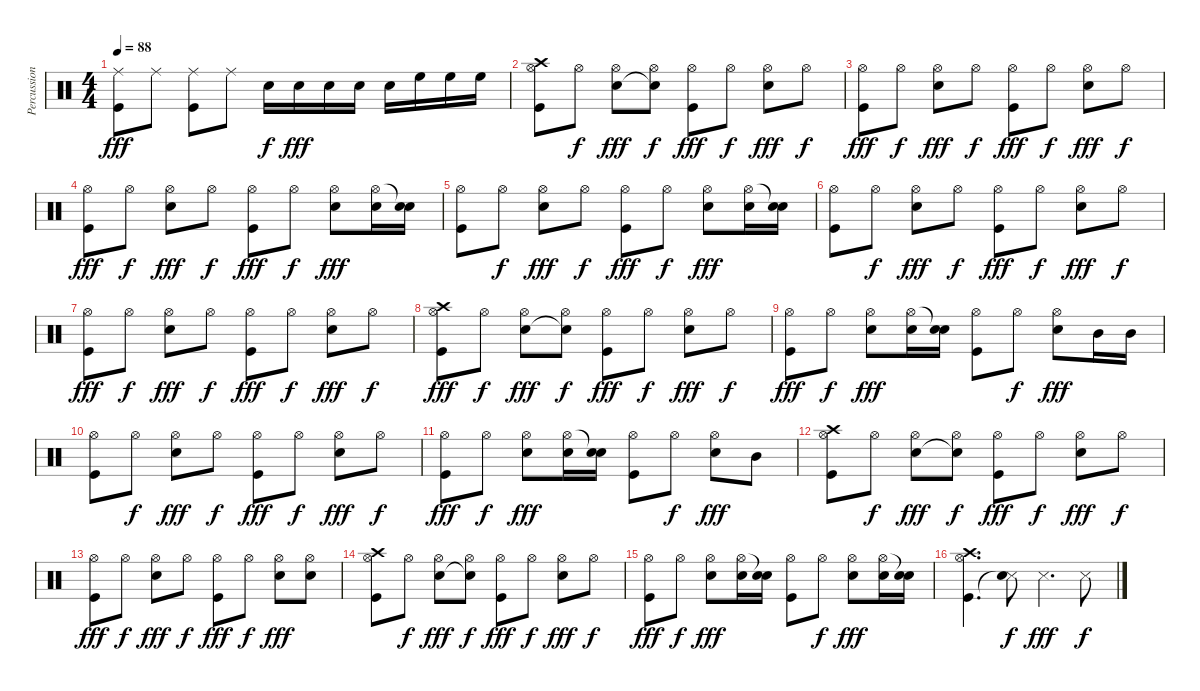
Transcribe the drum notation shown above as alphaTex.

\track ("Percussions" "Percussion") {instrument percussion}
\staff {score}
\articulation defaults
\ts (4 4)
\tempo 88
\clef neutral
\ks c
("Ride (middle)" "Kick (hit)").8{dy fff} "Ride (middle)".8 ("Ride (middle)" "Kick (hit)").8 "Ride (middle)".8 "Snare (hit) 2".16{dy f} "Snare (hit) 2".16{dy fff} "Snare (hit) 2".16 "Snare (hit) 2".16 "Snare (hit) 2".16 "High Floor Tom (hit)".16 "High Floor Tom (hit)".16 "High Floor Tom (hit)".16 |
("Hi-Hat (open)" "Kick (hit)" "Crash high (hit)").8 "Hi-Hat (open)".8{dy f} ("Hi-Hat (open)" "Snare (hit) 2").8{dy fff} ("Hi-Hat (open)" "Snare (hit)"{t}).8{dy f} ("Hi-Hat (open)" "Kick (hit)").8{dy fff} "Hi-Hat (open)".8{dy f} ("Hi-Hat (open)" "Snare (hit) 2").8{dy fff} "Hi-Hat (open)".8{dy f} |
("Hi-Hat (open)" "Kick (hit)").8{dy fff} "Hi-Hat (open)".8{dy f} ("Hi-Hat (open)" "Snare (hit) 2").8{dy fff} "Hi-Hat (open)".8{dy f} ("Hi-Hat (open)" "Kick (hit)").8{dy fff} "Hi-Hat (open)".8{dy f} ("Hi-Hat (open)" "Snare (hit) 2").8{dy fff} "Hi-Hat (open)".8{dy f} |
("Hi-Hat (open)" "Kick (hit)").8{dy fff} "Hi-Hat (open)".8{dy f} ("Hi-Hat (open)" "Snare (hit) 2").8{dy fff} "Hi-Hat (open)".8{dy f} ("Hi-Hat (open)" "Kick (hit)").8{dy fff} "Hi-Hat (open)".8{dy f} ("Hi-Hat (open)" "Snare (hit) 2").8{dy fff} ("Hi-Hat (open)" "Snare (hit) 2").16 ("Snare (hit)"{t} "Snare (hit) 2").16 |
("Hi-Hat (open)" "Kick (hit)").8 "Hi-Hat (open)".8{dy f} ("Hi-Hat (open)" "Snare (hit) 2").8{dy fff} "Hi-Hat (open)".8{dy f} ("Hi-Hat (open)" "Kick (hit)").8{dy fff} "Hi-Hat (open)".8{dy f} ("Hi-Hat (open)" "Snare (hit) 2").8{dy fff} ("Hi-Hat (open)" "Snare (hit) 2").16 ("Snare (hit)"{t} "Snare (hit) 2").16 |
("Hi-Hat (open)" "Kick (hit)").8 "Hi-Hat (open)".8{dy f} ("Hi-Hat (open)" "Snare (hit) 2").8{dy fff} "Hi-Hat (open)".8{dy f} ("Hi-Hat (open)" "Kick (hit)").8{dy fff} "Hi-Hat (open)".8{dy f} ("Hi-Hat (open)" "Snare (hit) 2").8{dy fff} "Hi-Hat (open)".8{dy f} |
("Hi-Hat (open)" "Kick (hit)").8{dy fff} "Hi-Hat (open)".8{dy f} ("Hi-Hat (open)" "Snare (hit) 2").8{dy fff} "Hi-Hat (open)".8{dy f} ("Hi-Hat (open)" "Kick (hit)").8{dy fff} "Hi-Hat (open)".8{dy f} ("Hi-Hat (open)" "Snare (hit) 2").8{dy fff} "Hi-Hat (open)".8{dy f} |
("Hi-Hat (open)" "Kick (hit)" "Crash high (hit)").8{dy fff} "Hi-Hat (open)".8{dy f} ("Hi-Hat (open)" "Snare (hit) 2").8{dy fff} ("Hi-Hat (open)" "Snare (hit)"{t}).8{dy f} ("Hi-Hat (open)" "Kick (hit)").8{dy fff} "Hi-Hat (open)".8{dy f} ("Hi-Hat (open)" "Snare (hit) 2").8{dy fff} "Hi-Hat (open)".8{dy f} |
("Hi-Hat (open)" "Kick (hit)").8{dy fff} "Hi-Hat (open)".8{dy f} ("Hi-Hat (open)" "Snare (hit) 2").8{dy fff} ("Hi-Hat (open)" "Snare (hit) 2").16 ("Snare (hit)"{t} "Snare (hit) 2").16 ("Hi-Hat (open)" "Kick (hit)").8 "Hi-Hat (open)".8{dy f} ("Hi-Hat (open)" "Snare (hit) 2").8{dy fff} "Mid Tom (hit)".16 "Mid Tom (hit)".16 |
("Hi-Hat (open)" "Kick (hit)").8 "Hi-Hat (open)".8{dy f} ("Hi-Hat (open)" "Snare (hit) 2").8{dy fff} "Hi-Hat (open)".8{dy f} ("Hi-Hat (open)" "Kick (hit)").8{dy fff} "Hi-Hat (open)".8{dy f} ("Hi-Hat (open)" "Snare (hit) 2").8{dy fff} "Hi-Hat (open)".8{dy f} |
("Hi-Hat (open)" "Kick (hit)").8{dy fff} "Hi-Hat (open)".8{dy f} ("Hi-Hat (open)" "Snare (hit) 2").8{dy fff} ("Hi-Hat (open)" "Snare (hit) 2").16 ("Snare (hit)"{t} "Snare (hit) 2").16 ("Hi-Hat (open)" "Kick (hit)").8 "Hi-Hat (open)".8{dy f} ("Hi-Hat (open)" "Snare (hit) 2").8{dy fff} "Mid Tom (hit)".8 |
("Hi-Hat (open)" "Kick (hit)" "Crash high (hit)").8 "Hi-Hat (open)".8{dy f} ("Hi-Hat (open)" "Snare (hit) 2").8{dy fff} ("Hi-Hat (open)" "Snare (hit)"{t}).8{dy f} ("Hi-Hat (open)" "Kick (hit)").8{dy fff} "Hi-Hat (open)".8{dy f} ("Hi-Hat (open)" "Snare (hit) 2").8{dy fff} "Hi-Hat (open)".8{dy f} |
("Hi-Hat (open)" "Kick (hit)").8{dy fff} "Hi-Hat (open)".8{dy f} ("Hi-Hat (open)" "Snare (hit) 2").8{dy fff} "Hi-Hat (open)".8{dy f} ("Hi-Hat (open)" "Kick (hit)").8{dy fff} "Hi-Hat (open)".8{dy f} ("Hi-Hat (open)" "Snare (hit) 2").8{dy fff} ("Hi-Hat (open)" "Snare (hit) 2").8 |
("Hi-Hat (open)" "Kick (hit)" "Crash high (hit)").8 "Hi-Hat (open)".8{dy f} ("Hi-Hat (open)" "Snare (hit) 2").8{dy fff} ("Hi-Hat (open)" "Snare (hit)"{t}).8{dy f} ("Hi-Hat (open)" "Kick (hit)").8{dy fff} "Hi-Hat (open)".8{dy f} ("Hi-Hat (open)" "Snare (hit) 2").8{dy fff} "Hi-Hat (open)".8{dy f} |
("Hi-Hat (open)" "Kick (hit)").8{dy fff} "Hi-Hat (open)".8{dy f} ("Hi-Hat (open)" "Snare (hit) 2").8{dy fff} ("Hi-Hat (open)" "Snare (hit) 2").16 ("Snare (hit)"{t} "Snare (hit) 2").16 ("Hi-Hat (open)" "Kick (hit)").8 "Hi-Hat (open)".8{dy f} ("Hi-Hat (open)" "Snare (hit) 2").8{dy fff} ("Hi-Hat (open)" "Snare (hit) 2").16 ("Snare (hit)"{t} "Snare (hit) 2").16 |
("Hi-Hat (open)" "Kick (hit)" "Crash high (hit)").4{d} ("Metronome (hit)" "Snare (hit)"{t}).8{dy f} "Metronome (hit)".4{d dy fff} "Metronome (hit)".8{dy f}
